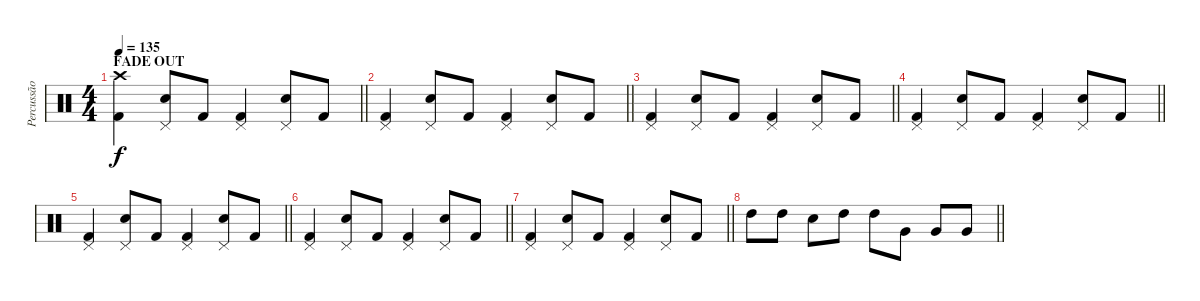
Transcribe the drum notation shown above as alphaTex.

\track ("Percussão" "Percussão") {instrument percussion}
\staff {score}
\articulation defaults
\ts (4 4)
\section ("" "FADE OUT")
\tempo 135
\clef neutral
\barLineRight lightlight
\ks c
("Crash high (hit)" "Kick (hit) 2").4{dy f} ("Pedal Hi-Hat (hit)" "Snare (hit) 2").8 "Kick (hit) 2".8 ("Pedal Hi-Hat (hit)" "Kick (hit) 2").4 ("Pedal Hi-Hat (hit)" "Snare (hit) 2").8 "Kick (hit) 2".8 |
\barLineRight lightlight
("Pedal Hi-Hat (hit)" "Kick (hit) 2").4 ("Pedal Hi-Hat (hit)" "Snare (hit) 2").8 "Kick (hit) 2".8 ("Pedal Hi-Hat (hit)" "Kick (hit) 2").4 ("Pedal Hi-Hat (hit)" "Snare (hit) 2").8 "Kick (hit) 2".8 |
\barLineRight lightlight
("Pedal Hi-Hat (hit)" "Kick (hit) 2").4 ("Pedal Hi-Hat (hit)" "Snare (hit) 2").8 "Kick (hit) 2".8 ("Pedal Hi-Hat (hit)" "Kick (hit) 2").4 ("Pedal Hi-Hat (hit)" "Snare (hit) 2").8 "Kick (hit) 2".8 |
\barLineRight lightlight
("Pedal Hi-Hat (hit)" "Kick (hit) 2").4 ("Pedal Hi-Hat (hit)" "Snare (hit) 2").8 "Kick (hit) 2".8 ("Pedal Hi-Hat (hit)" "Kick (hit) 2").4 ("Pedal Hi-Hat (hit)" "Snare (hit) 2").8 "Kick (hit) 2".8 |
\barLineRight lightlight
("Pedal Hi-Hat (hit)" "Kick (hit) 2").4 ("Pedal Hi-Hat (hit)" "Snare (hit) 2").8 "Kick (hit) 2".8 ("Pedal Hi-Hat (hit)" "Kick (hit) 2").4 ("Pedal Hi-Hat (hit)" "Snare (hit) 2").8 "Kick (hit) 2".8 |
\barLineRight lightlight
("Pedal Hi-Hat (hit)" "Kick (hit) 2").4 ("Pedal Hi-Hat (hit)" "Snare (hit) 2").8 "Kick (hit) 2".8 ("Pedal Hi-Hat (hit)" "Kick (hit) 2").4 ("Pedal Hi-Hat (hit)" "Snare (hit) 2").8 "Kick (hit) 2".8 |
\barLineRight lightlight
("Pedal Hi-Hat (hit)" "Kick (hit) 2").4 ("Pedal Hi-Hat (hit)" "Snare (hit) 2").8 "Kick (hit) 2".8 ("Pedal Hi-Hat (hit)" "Kick (hit) 2").4 ("Pedal Hi-Hat (hit)" "Snare (hit) 2").8 "Kick (hit) 2".8 |
\barLineRight lightlight "High Tom (hit)".8 "High Tom (hit)".8 "Snare (hit) 2".8 "High Tom (hit)".8 "High Tom (hit)".8 "Very Low Tom (hit)".8 "Very Low Tom (hit)".8 "Very Low Tom (hit)".8
